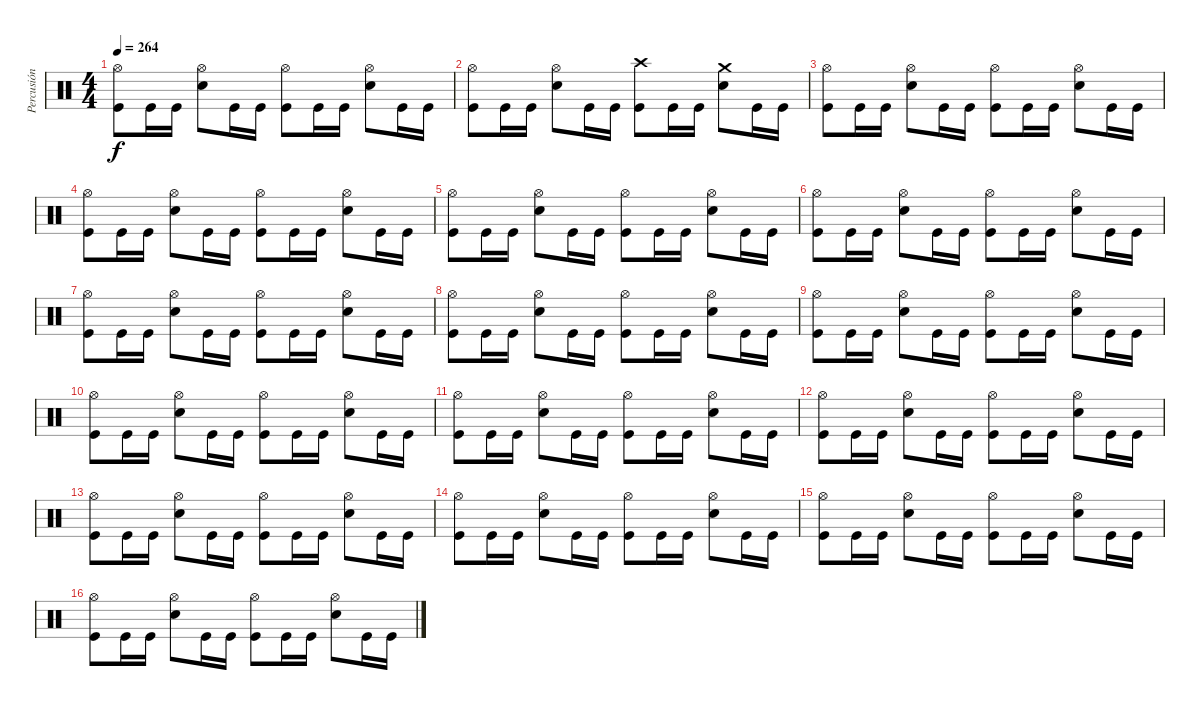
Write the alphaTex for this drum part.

\track ("Percusión" "Percusión") {instrument percussion}
\staff {score}
\articulation defaults
\ts (4 4)
\tempo 264
\clef neutral
\ks c
("Hi-Hat (open)" "Kick (hit)").8{dy f} "Kick (hit)".16 "Kick (hit)".16 ("Hi-Hat (open)" "Snare (hit) 2").8 "Kick (hit)".16 "Kick (hit)".16 ("Hi-Hat (open)" "Kick (hit)").8 "Kick (hit)".16 "Kick (hit)".16 ("Hi-Hat (open)" "Snare (hit) 2").8 "Kick (hit)".16 "Kick (hit)".16 |
("Hi-Hat (open)" "Kick (hit)").8 "Kick (hit)".16 "Kick (hit)".16 ("Hi-Hat (open)" "Snare (hit) 2").8 "Kick (hit)".16 "Kick (hit)".16 ("Crash high (hit)" "Kick (hit)").8 "Kick (hit)".16 "Kick (hit)".16 ("Crash medium (hit)" "Snare (hit) 2").8 "Kick (hit)".16 "Kick (hit)".16 |
("Hi-Hat (open)" "Kick (hit)").8 "Kick (hit)".16 "Kick (hit)".16 ("Hi-Hat (open)" "Snare (hit) 2").8 "Kick (hit)".16 "Kick (hit)".16 ("Hi-Hat (open)" "Kick (hit)").8 "Kick (hit)".16 "Kick (hit)".16 ("Hi-Hat (open)" "Snare (hit) 2").8 "Kick (hit)".16 "Kick (hit)".16 |
("Hi-Hat (open)" "Kick (hit)").8 "Kick (hit)".16 "Kick (hit)".16 ("Hi-Hat (open)" "Snare (hit) 2").8 "Kick (hit)".16 "Kick (hit)".16 ("Hi-Hat (open)" "Kick (hit)").8 "Kick (hit)".16 "Kick (hit)".16 ("Hi-Hat (open)" "Snare (hit) 2").8 "Kick (hit)".16 "Kick (hit)".16 |
("Hi-Hat (open)" "Kick (hit)").8 "Kick (hit)".16 "Kick (hit)".16 ("Hi-Hat (open)" "Snare (hit) 2").8 "Kick (hit)".16 "Kick (hit)".16 ("Hi-Hat (open)" "Kick (hit)").8 "Kick (hit)".16 "Kick (hit)".16 ("Hi-Hat (open)" "Snare (hit) 2").8 "Kick (hit)".16 "Kick (hit)".16 |
("Hi-Hat (open)" "Kick (hit)").8 "Kick (hit)".16 "Kick (hit)".16 ("Hi-Hat (open)" "Snare (hit) 2").8 "Kick (hit)".16 "Kick (hit)".16 ("Hi-Hat (open)" "Kick (hit)").8 "Kick (hit)".16 "Kick (hit)".16 ("Hi-Hat (open)" "Snare (hit) 2").8 "Kick (hit)".16 "Kick (hit)".16 |
("Hi-Hat (open)" "Kick (hit)").8 "Kick (hit)".16 "Kick (hit)".16 ("Hi-Hat (open)" "Snare (hit) 2").8 "Kick (hit)".16 "Kick (hit)".16 ("Hi-Hat (open)" "Kick (hit)").8 "Kick (hit)".16 "Kick (hit)".16 ("Hi-Hat (open)" "Snare (hit) 2").8 "Kick (hit)".16 "Kick (hit)".16 |
("Hi-Hat (open)" "Kick (hit)").8 "Kick (hit)".16 "Kick (hit)".16 ("Hi-Hat (open)" "Snare (hit) 2").8 "Kick (hit)".16 "Kick (hit)".16 ("Hi-Hat (open)" "Kick (hit)").8 "Kick (hit)".16 "Kick (hit)".16 ("Hi-Hat (open)" "Snare (hit) 2").8 "Kick (hit)".16 "Kick (hit)".16 |
("Hi-Hat (open)" "Kick (hit)").8 "Kick (hit)".16 "Kick (hit)".16 ("Hi-Hat (open)" "Snare (hit) 2").8 "Kick (hit)".16 "Kick (hit)".16 ("Hi-Hat (open)" "Kick (hit)").8 "Kick (hit)".16 "Kick (hit)".16 ("Hi-Hat (open)" "Snare (hit) 2").8 "Kick (hit)".16 "Kick (hit)".16 |
("Hi-Hat (open)" "Kick (hit)").8 "Kick (hit)".16 "Kick (hit)".16 ("Hi-Hat (open)" "Snare (hit) 2").8 "Kick (hit)".16 "Kick (hit)".16 ("Hi-Hat (open)" "Kick (hit)").8 "Kick (hit)".16 "Kick (hit)".16 ("Hi-Hat (open)" "Snare (hit) 2").8 "Kick (hit)".16 "Kick (hit)".16 |
("Hi-Hat (open)" "Kick (hit)").8 "Kick (hit)".16 "Kick (hit)".16 ("Hi-Hat (open)" "Snare (hit) 2").8 "Kick (hit)".16 "Kick (hit)".16 ("Hi-Hat (open)" "Kick (hit)").8 "Kick (hit)".16 "Kick (hit)".16 ("Hi-Hat (open)" "Snare (hit) 2").8 "Kick (hit)".16 "Kick (hit)".16 |
("Hi-Hat (open)" "Kick (hit)").8 "Kick (hit)".16 "Kick (hit)".16 ("Hi-Hat (open)" "Snare (hit) 2").8 "Kick (hit)".16 "Kick (hit)".16 ("Hi-Hat (open)" "Kick (hit)").8 "Kick (hit)".16 "Kick (hit)".16 ("Hi-Hat (open)" "Snare (hit) 2").8 "Kick (hit)".16 "Kick (hit)".16 |
("Hi-Hat (open)" "Kick (hit)").8 "Kick (hit)".16 "Kick (hit)".16 ("Hi-Hat (open)" "Snare (hit) 2").8 "Kick (hit)".16 "Kick (hit)".16 ("Hi-Hat (open)" "Kick (hit)").8 "Kick (hit)".16 "Kick (hit)".16 ("Hi-Hat (open)" "Snare (hit) 2").8 "Kick (hit)".16 "Kick (hit)".16 |
("Hi-Hat (open)" "Kick (hit)").8 "Kick (hit)".16 "Kick (hit)".16 ("Hi-Hat (open)" "Snare (hit) 2").8 "Kick (hit)".16 "Kick (hit)".16 ("Hi-Hat (open)" "Kick (hit)").8 "Kick (hit)".16 "Kick (hit)".16 ("Hi-Hat (open)" "Snare (hit) 2").8 "Kick (hit)".16 "Kick (hit)".16 |
("Hi-Hat (open)" "Kick (hit)").8 "Kick (hit)".16 "Kick (hit)".16 ("Hi-Hat (open)" "Snare (hit) 2").8 "Kick (hit)".16 "Kick (hit)".16 ("Hi-Hat (open)" "Kick (hit)").8 "Kick (hit)".16 "Kick (hit)".16 ("Hi-Hat (open)" "Snare (hit) 2").8 "Kick (hit)".16 "Kick (hit)".16 |
("Hi-Hat (open)" "Kick (hit)").8 "Kick (hit)".16 "Kick (hit)".16 ("Hi-Hat (open)" "Snare (hit) 2").8 "Kick (hit)".16 "Kick (hit)".16 ("Hi-Hat (open)" "Kick (hit)").8 "Kick (hit)".16 "Kick (hit)".16 ("Hi-Hat (open)" "Snare (hit) 2").8 "Kick (hit)".16 "Kick (hit)".16
